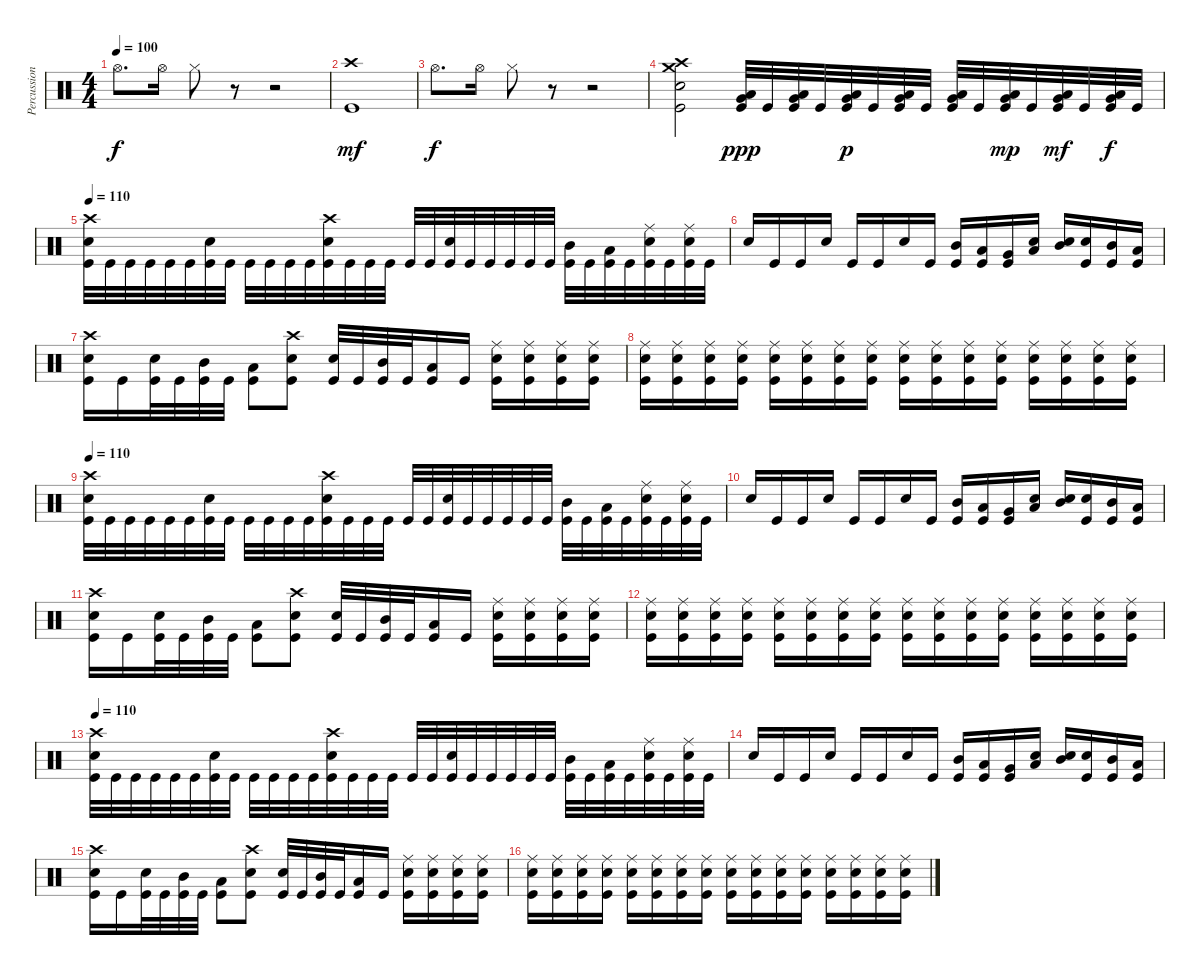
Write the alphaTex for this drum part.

\track ("Percussion" "Percussion") {instrument percussion}
\staff {score}
\articulation defaults
\ts (4 4)
\tempo 100
\clef neutral
\ks c "Hi-Hat (open)".8{d dy f} "Hi-Hat (open)".16 "Hi-Hat (closed)".8
r.8 r.2 |
("Crash high (hit)" "Kick (hit)").1{dy mf} |
"Hi-Hat (open)".8{d dy f} "Hi-Hat (open)".16 "Hi-Hat (closed)".8 r.8 r.2 |
("Crash medium (hit)" "Crash high (hit)" "Electric Snare (hit)" "Kick (hit)").2 ("Very Low Tom (hit)" "Low Floor Tom (hit)" "Kick (hit)").32{dy ppp} "Kick (hit)".32 ("Very Low Tom (hit)" "Low Floor Tom (hit)" "Kick (hit)").32 "Kick (hit)".32 ("Very Low Tom (hit)" "Low Floor Tom (hit)" "Kick (hit)").32{dy p} "Kick (hit)".32 ("Very Low Tom (hit)" "Low Floor Tom (hit)" "Kick (hit)").32 "Kick (hit)".32 ("Very Low Tom (hit)" "Low Floor Tom (hit)" "Kick (hit)").32 "Kick (hit)".32 ("Very Low Tom (hit)" "Low Floor Tom (hit)" "Kick (hit)").32{dy mp} "Kick (hit)".32 ("Very Low Tom (hit)" "Low Floor Tom (hit)" "Kick (hit)").32{dy mf} "Kick (hit)".32 ("Very Low Tom (hit)" "Low Floor Tom (hit)" "Kick (hit)").32{dy f} "Kick (hit)".32 |
\tempo 110
("Crash high (hit)" "Electric Snare (hit)" "Kick (hit)").32 "Kick (hit)".32 "Kick (hit)".32 "Kick (hit)".32 "Kick (hit)".32 "Kick (hit)".32 ("Electric Snare (hit)" "Kick (hit)").32 "Kick (hit)".32 "Kick (hit)".32 "Kick (hit)".32 "Kick (hit)".32 "Kick (hit)".32 ("Crash high (hit)" "Electric Snare (hit)" "Kick (hit)").32 "Kick (hit)".32 "Kick (hit)".32 "Kick (hit)".32 "Kick (hit)".32 "Kick (hit)".32 ("Electric Snare (hit)" "Kick (hit)").32 "Kick (hit)".32 "Kick (hit)".32 "Kick (hit)".32 "Kick (hit)".32 "Kick (hit)".32 ("Mid Tom (hit)" "Kick (hit)").32 "Kick (hit)".32 ("Low Tom (hit)" "Kick (hit)").32 "Kick (hit)".32 ("Ride (middle)" "Electric Snare (hit)" "Kick (hit)").32 "Kick (hit)".32 ("Ride (middle)" "Electric Snare (hit)" "Kick (hit)").32 "Kick (hit)".32 |
"Electric Snare (hit)".16 "Kick (hit)".16 "Kick (hit)".16 "Electric Snare (hit)".16 "Kick (hit)".16 "Kick (hit)".16 "Electric Snare (hit)".16 "Kick (hit)".16 ("Mid Tom (hit)" "Kick (hit)").16 ("Low Tom (hit)" "Kick (hit)").16 ("Very Low Tom (hit)" "Kick (hit)").16 ("Low Floor Tom (hit)" "Snare (hit)").16 ("Mid Tom (hit)" "Snare (hit)").16 ("Electric Snare (hit)" "Kick (hit)").16 ("Mid Tom (hit)" "Kick (hit)").16 ("Low Tom (hit)" "Kick (hit)").16 |
("Crash high (hit)" "Electric Snare (hit)" "Kick (hit)").16 "Kick (hit)".16 ("Electric Snare (hit)" "Kick (hit)").32 "Kick (hit)".32 ("Mid Tom (hit)" "Kick (hit)").32 "Kick (hit)".32 ("Low Tom (hit)" "Kick (hit)").8 ("Crash high (hit)" "Electric Snare (hit)" "Kick (hit)").8 ("Electric Snare (hit)" "Kick (hit)").32 "Kick (hit)".32 ("Mid Tom (hit)" "Kick (hit)").32 "Kick (hit)".32 ("Low Tom (hit)" "Kick (hit)").16 "Kick (hit)".16 ("Ride (middle)" "Electric Snare (hit)" "Kick (hit)").16 ("Ride (middle)" "Electric Snare (hit)" "Kick (hit)").16 ("Ride (middle)" "Electric Snare (hit)" "Kick (hit)").16 ("Ride (middle)" "Electric Snare (hit)" "Kick (hit)").16 |
("Ride (middle)" "Electric Snare (hit)" "Kick (hit)").16 ("Ride (middle)" "Electric Snare (hit)" "Kick (hit)").16 ("Ride (middle)" "Electric Snare (hit)" "Kick (hit)").16 ("Ride (middle)" "Electric Snare (hit)" "Kick (hit)").16 ("Ride (middle)" "Electric Snare (hit)" "Kick (hit)").16 ("Ride (middle)" "Electric Snare (hit)" "Kick (hit)").16 ("Ride (middle)" "Electric Snare (hit)" "Kick (hit)").16 ("Ride (middle)" "Electric Snare (hit)" "Kick (hit)").16 ("Ride (middle)" "Electric Snare (hit)" "Kick (hit)").16 ("Ride (middle)" "Electric Snare (hit)" "Kick (hit)").16 ("Ride (middle)" "Electric Snare (hit)" "Kick (hit)").16 ("Ride (middle)" "Electric Snare (hit)" "Kick (hit)").16 ("Ride (middle)" "Electric Snare (hit)" "Kick (hit)").16 ("Ride (middle)" "Electric Snare (hit)" "Kick (hit)").16 ("Ride (middle)" "Electric Snare (hit)" "Kick (hit)").16 ("Ride (middle)" "Electric Snare (hit)" "Kick (hit)").16 |
\tempo 110
("Crash high (hit)" "Electric Snare (hit)" "Kick (hit)").32 "Kick (hit)".32 "Kick (hit)".32 "Kick (hit)".32 "Kick (hit)".32 "Kick (hit)".32 ("Electric Snare (hit)" "Kick (hit)").32 "Kick (hit)".32 "Kick (hit)".32 "Kick (hit)".32 "Kick (hit)".32 "Kick (hit)".32 ("Crash high (hit)" "Electric Snare (hit)" "Kick (hit)").32 "Kick (hit)".32 "Kick (hit)".32 "Kick (hit)".32 "Kick (hit)".32 "Kick (hit)".32 ("Electric Snare (hit)" "Kick (hit)").32 "Kick (hit)".32 "Kick (hit)".32 "Kick (hit)".32 "Kick (hit)".32 "Kick (hit)".32 ("Mid Tom (hit)" "Kick (hit)").32 "Kick (hit)".32 ("Low Tom (hit)" "Kick (hit)").32 "Kick (hit)".32 ("Ride (middle)" "Electric Snare (hit)" "Kick (hit)").32 "Kick (hit)".32 ("Ride (middle)" "Electric Snare (hit)" "Kick (hit)").32 "Kick (hit)".32 |
"Electric Snare (hit)".16 "Kick (hit)".16 "Kick (hit)".16 "Electric Snare (hit)".16 "Kick (hit)".16 "Kick (hit)".16 "Electric Snare (hit)".16 "Kick (hit)".16 ("Mid Tom (hit)" "Kick (hit)").16 ("Low Tom (hit)" "Kick (hit)").16 ("Very Low Tom (hit)" "Kick (hit)").16 ("Low Floor Tom (hit)" "Snare (hit)").16 ("Mid Tom (hit)" "Snare (hit)").16 ("Electric Snare (hit)" "Kick (hit)").16 ("Mid Tom (hit)" "Kick (hit)").16 ("Low Tom (hit)" "Kick (hit)").16 |
("Crash high (hit)" "Electric Snare (hit)" "Kick (hit)").16 "Kick (hit)".16 ("Electric Snare (hit)" "Kick (hit)").32 "Kick (hit)".32 ("Mid Tom (hit)" "Kick (hit)").32 "Kick (hit)".32 ("Low Tom (hit)" "Kick (hit)").8 ("Crash high (hit)" "Electric Snare (hit)" "Kick (hit)").8 ("Electric Snare (hit)" "Kick (hit)").32 "Kick (hit)".32 ("Mid Tom (hit)" "Kick (hit)").32 "Kick (hit)".32 ("Low Tom (hit)" "Kick (hit)").16 "Kick (hit)".16 ("Ride (middle)" "Electric Snare (hit)" "Kick (hit)").16 ("Ride (middle)" "Electric Snare (hit)" "Kick (hit)").16 ("Ride (middle)" "Electric Snare (hit)" "Kick (hit)").16 ("Ride (middle)" "Electric Snare (hit)" "Kick (hit)").16 |
("Ride (middle)" "Electric Snare (hit)" "Kick (hit)").16 ("Ride (middle)" "Electric Snare (hit)" "Kick (hit)").16 ("Ride (middle)" "Electric Snare (hit)" "Kick (hit)").16 ("Ride (middle)" "Electric Snare (hit)" "Kick (hit)").16 ("Ride (middle)" "Electric Snare (hit)" "Kick (hit)").16 ("Ride (middle)" "Electric Snare (hit)" "Kick (hit)").16 ("Ride (middle)" "Electric Snare (hit)" "Kick (hit)").16 ("Ride (middle)" "Electric Snare (hit)" "Kick (hit)").16 ("Ride (middle)" "Electric Snare (hit)" "Kick (hit)").16 ("Ride (middle)" "Electric Snare (hit)" "Kick (hit)").16 ("Ride (middle)" "Electric Snare (hit)" "Kick (hit)").16 ("Ride (middle)" "Electric Snare (hit)" "Kick (hit)").16 ("Ride (middle)" "Electric Snare (hit)" "Kick (hit)").16 ("Ride (middle)" "Electric Snare (hit)" "Kick (hit)").16 ("Ride (middle)" "Electric Snare (hit)" "Kick (hit)").16 ("Ride (middle)" "Electric Snare (hit)" "Kick (hit)").16 |
\tempo 110
("Crash high (hit)" "Electric Snare (hit)" "Kick (hit)").32 "Kick (hit)".32 "Kick (hit)".32 "Kick (hit)".32 "Kick (hit)".32 "Kick (hit)".32 ("Electric Snare (hit)" "Kick (hit)").32 "Kick (hit)".32 "Kick (hit)".32 "Kick (hit)".32 "Kick (hit)".32 "Kick (hit)".32 ("Crash high (hit)" "Electric Snare (hit)" "Kick (hit)").32 "Kick (hit)".32 "Kick (hit)".32 "Kick (hit)".32 "Kick (hit)".32 "Kick (hit)".32 ("Electric Snare (hit)" "Kick (hit)").32 "Kick (hit)".32 "Kick (hit)".32 "Kick (hit)".32 "Kick (hit)".32 "Kick (hit)".32 ("Mid Tom (hit)" "Kick (hit)").32 "Kick (hit)".32 ("Low Tom (hit)" "Kick (hit)").32 "Kick (hit)".32 ("Ride (middle)" "Electric Snare (hit)" "Kick (hit)").32 "Kick (hit)".32 ("Ride (middle)" "Electric Snare (hit)" "Kick (hit)").32 "Kick (hit)".32 |
"Electric Snare (hit)".16 "Kick (hit)".16 "Kick (hit)".16 "Electric Snare (hit)".16 "Kick (hit)".16 "Kick (hit)".16 "Electric Snare (hit)".16 "Kick (hit)".16 ("Mid Tom (hit)" "Kick (hit)").16 ("Low Tom (hit)" "Kick (hit)").16 ("Very Low Tom (hit)" "Kick (hit)").16 ("Low Floor Tom (hit)" "Snare (hit)").16 ("Mid Tom (hit)" "Snare (hit)").16 ("Electric Snare (hit)" "Kick (hit)").16 ("Mid Tom (hit)" "Kick (hit)").16 ("Low Tom (hit)" "Kick (hit)").16 |
("Crash high (hit)" "Electric Snare (hit)" "Kick (hit)").16 "Kick (hit)".16 ("Electric Snare (hit)" "Kick (hit)").32 "Kick (hit)".32 ("Mid Tom (hit)" "Kick (hit)").32 "Kick (hit)".32 ("Low Tom (hit)" "Kick (hit)").8 ("Crash high (hit)" "Electric Snare (hit)" "Kick (hit)").8 ("Electric Snare (hit)" "Kick (hit)").32 "Kick (hit)".32 ("Mid Tom (hit)" "Kick (hit)").32 "Kick (hit)".32 ("Low Tom (hit)" "Kick (hit)").16 "Kick (hit)".16 ("Ride (middle)" "Electric Snare (hit)" "Kick (hit)").16 ("Ride (middle)" "Electric Snare (hit)" "Kick (hit)").16 ("Ride (middle)" "Electric Snare (hit)" "Kick (hit)").16 ("Ride (middle)" "Electric Snare (hit)" "Kick (hit)").16 |
("Ride (middle)" "Electric Snare (hit)" "Kick (hit)").16 ("Ride (middle)" "Electric Snare (hit)" "Kick (hit)").16 ("Ride (middle)" "Electric Snare (hit)" "Kick (hit)").16 ("Ride (middle)" "Electric Snare (hit)" "Kick (hit)").16 ("Ride (middle)" "Electric Snare (hit)" "Kick (hit)").16 ("Ride (middle)" "Electric Snare (hit)" "Kick (hit)").16 ("Ride (middle)" "Electric Snare (hit)" "Kick (hit)").16 ("Ride (middle)" "Electric Snare (hit)" "Kick (hit)").16 ("Ride (middle)" "Electric Snare (hit)" "Kick (hit)").16 ("Ride (middle)" "Electric Snare (hit)" "Kick (hit)").16 ("Ride (middle)" "Electric Snare (hit)" "Kick (hit)").16 ("Ride (middle)" "Electric Snare (hit)" "Kick (hit)").16 ("Ride (middle)" "Electric Snare (hit)" "Kick (hit)").16 ("Ride (middle)" "Electric Snare (hit)" "Kick (hit)").16 ("Ride (middle)" "Electric Snare (hit)" "Kick (hit)").16 ("Ride (middle)" "Electric Snare (hit)" "Kick (hit)").16
